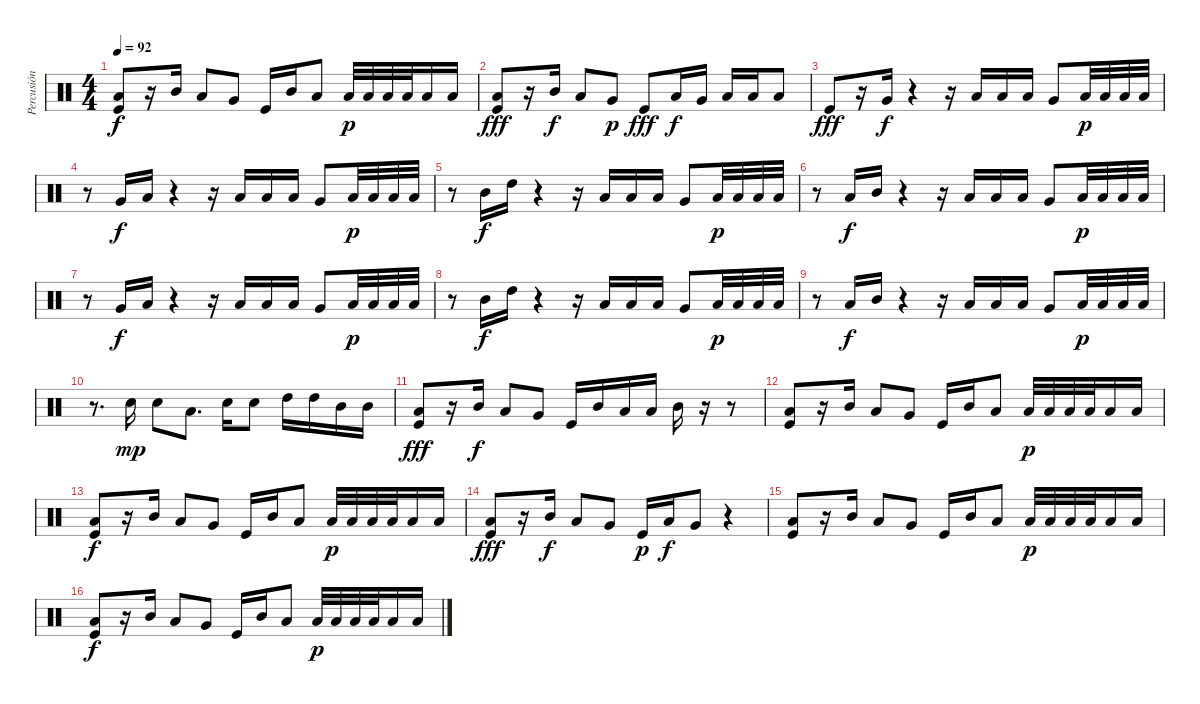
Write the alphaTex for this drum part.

\track ("Percusión" "Percusión") {instrument percussion}
\staff {score}
\articulation defaults
\ts (4 4)
\tempo 92
\clef neutral
\ks c
("Low Tom (hit)" "Kick (hit)").8{dy f} r.16 "Mid Tom (hit)".16 "Low Tom (hit)".8 "Very Low Tom (hit)".8 "Kick (hit)".16 "Mid Tom (hit)".16 "Low Tom (hit)".8 "Low Floor Tom (hit)".32{dy p} "Low Floor Tom (hit)".32 "Low Floor Tom (hit)".32 "Low Floor Tom (hit)".32 "Low Floor Tom (hit)".16 "Low Floor Tom (hit)".16 |
("Low Tom (hit)" "Kick (hit)").8{dy fff} r.16 "Mid Tom (hit)".16{dy f} "Low Tom (hit)".8 "Very Low Tom (hit)".8{dy p} "Kick (hit)".8{dy fff} "Low Tom (hit)".16{dy f} "Very Low Tom (hit)".16 "Low Floor Tom (hit)".16 "Low Floor Tom (hit)".16 "Low Floor Tom (hit)".8 |
"Kick (hit)".8{dy fff} r.16 "Very Low Tom (hit)".16{dy f} r.4 r.16 "Low Floor Tom (hit)".16 "Low Floor Tom (hit)".16 "Low Floor Tom (hit)".16 "Very Low Tom (hit)".8 "Low Floor Tom (hit)".32{dy p} "Low Floor Tom (hit)".32 "Low Floor Tom (hit)".32 "Low Floor Tom (hit)".32 |
r.8 "Very Low Tom (hit)".16{dy f} "Low Tom (hit)".16 r.4 r.16 "Low Floor Tom (hit)".16 "Low Floor Tom (hit)".16 "Low Floor Tom (hit)".16 "Very Low Tom (hit)".8 "Low Floor Tom (hit)".32{dy p} "Low Floor Tom (hit)".32 "Low Floor Tom (hit)".32 "Low Floor Tom (hit)".32 |
r.8 "Mid Tom (hit)".16{dy f} "High Tom (hit)".16 r.4 r.16 "Low Floor Tom (hit)".16 "Low Floor Tom (hit)".16 "Low Floor Tom (hit)".16 "Very Low Tom (hit)".8 "Low Floor Tom (hit)".32{dy p} "Low Floor Tom (hit)".32 "Low Floor Tom (hit)".32 "Low Floor Tom (hit)".32 |
r.8 "Low Tom (hit)".16{dy f} "Mid Tom (hit)".16 r.4 r.16 "Low Floor Tom (hit)".16 "Low Floor Tom (hit)".16 "Low Floor Tom (hit)".16 "Very Low Tom (hit)".8 "Low Floor Tom (hit)".32{dy p} "Low Floor Tom (hit)".32 "Low Floor Tom (hit)".32 "Low Floor Tom (hit)".32 |
r.8 "Very Low Tom (hit)".16{dy f} "Low Tom (hit)".16 r.4 r.16 "Low Floor Tom (hit)".16 "Low Floor Tom (hit)".16 "Low Floor Tom (hit)".16 "Very Low Tom (hit)".8 "Low Floor Tom (hit)".32{dy p} "Low Floor Tom (hit)".32 "Low Floor Tom (hit)".32 "Low Floor Tom (hit)".32 |
r.8 "Mid Tom (hit)".16{dy f} "High Tom (hit)".16 r.4 r.16 "Low Floor Tom (hit)".16 "Low Floor Tom (hit)".16 "Low Floor Tom (hit)".16 "Very Low Tom (hit)".8 "Low Floor Tom (hit)".32{dy p} "Low Floor Tom (hit)".32 "Low Floor Tom (hit)".32 "Low Floor Tom (hit)".32 |
r.8 "Low Tom (hit)".16{dy f} "Mid Tom (hit)".16 r.4 r.16 "Low Floor Tom (hit)".16 "Low Floor Tom (hit)".16 "Low Floor Tom (hit)".16 "Very Low Tom (hit)".8 "Low Floor Tom (hit)".32{dy p} "Low Floor Tom (hit)".32 "Low Floor Tom (hit)".32 "Low Floor Tom (hit)".32 |
r.8{d} "Electric Snare (hit)".16{dy mp} "Electric Snare (hit)".8 "Low Tom (hit)".8{d} "Electric Snare (hit)".16 "Electric Snare (hit)".8 "High Tom (hit)".16 "High Tom (hit)".16 "Mid Tom (hit)".16 "Mid Tom (hit)".16 |
("Low Tom (hit)" "Kick (hit)").8{dy fff} r.16 "Mid Tom (hit)".16{dy f} "Low Tom (hit)".8 "Very Low Tom (hit)".8 "Kick (hit)".16 "Mid Tom (hit)".16 "Low Tom (hit)".16 "Low Tom (hit)".16 "Mid Tom (hit)".16 r.16 r.8 |
("Low Tom (hit)" "Kick (hit)").8 r.16 "Mid Tom (hit)".16 "Low Tom (hit)".8 "Very Low Tom (hit)".8 "Kick (hit)".16 "Mid Tom (hit)".16 "Low Tom (hit)".8 "Low Floor Tom (hit)".32{dy p} "Low Floor Tom (hit)".32 "Low Floor Tom (hit)".32 "Low Floor Tom (hit)".32 "Low Floor Tom (hit)".16 "Low Floor Tom (hit)".16 |
("Low Tom (hit)" "Kick (hit)").8{dy f} r.16 "Mid Tom (hit)".16 "Low Tom (hit)".8 "Very Low Tom (hit)".8 "Kick (hit)".16 "Mid Tom (hit)".16 "Low Tom (hit)".8 "Low Floor Tom (hit)".32{dy p} "Low Floor Tom (hit)".32 "Low Floor Tom (hit)".32 "Low Floor Tom (hit)".32 "Low Floor Tom (hit)".16 "Low Floor Tom (hit)".16 |
("Low Tom (hit)" "Kick (hit)").8{dy fff} r.16 "Mid Tom (hit)".16{dy f} "Low Tom (hit)".8 "Very Low Tom (hit)".8 "Kick (hit)".16{dy p} "Low Tom (hit)".16{dy f} "Very Low Tom (hit)".8 r.4 |
("Low Tom (hit)" "Kick (hit)").8 r.16 "Mid Tom (hit)".16 "Low Tom (hit)".8 "Very Low Tom (hit)".8 "Kick (hit)".16 "Mid Tom (hit)".16 "Low Tom (hit)".8 "Low Floor Tom (hit)".32{dy p} "Low Floor Tom (hit)".32 "Low Floor Tom (hit)".32 "Low Floor Tom (hit)".32 "Low Floor Tom (hit)".16 "Low Floor Tom (hit)".16 |
("Low Tom (hit)" "Kick (hit)").8{dy f} r.16 "Mid Tom (hit)".16 "Low Tom (hit)".8 "Very Low Tom (hit)".8 "Kick (hit)".16 "Mid Tom (hit)".16 "Low Tom (hit)".8 "Low Floor Tom (hit)".32{dy p} "Low Floor Tom (hit)".32 "Low Floor Tom (hit)".32 "Low Floor Tom (hit)".32 "Low Floor Tom (hit)".16 "Low Floor Tom (hit)".16
